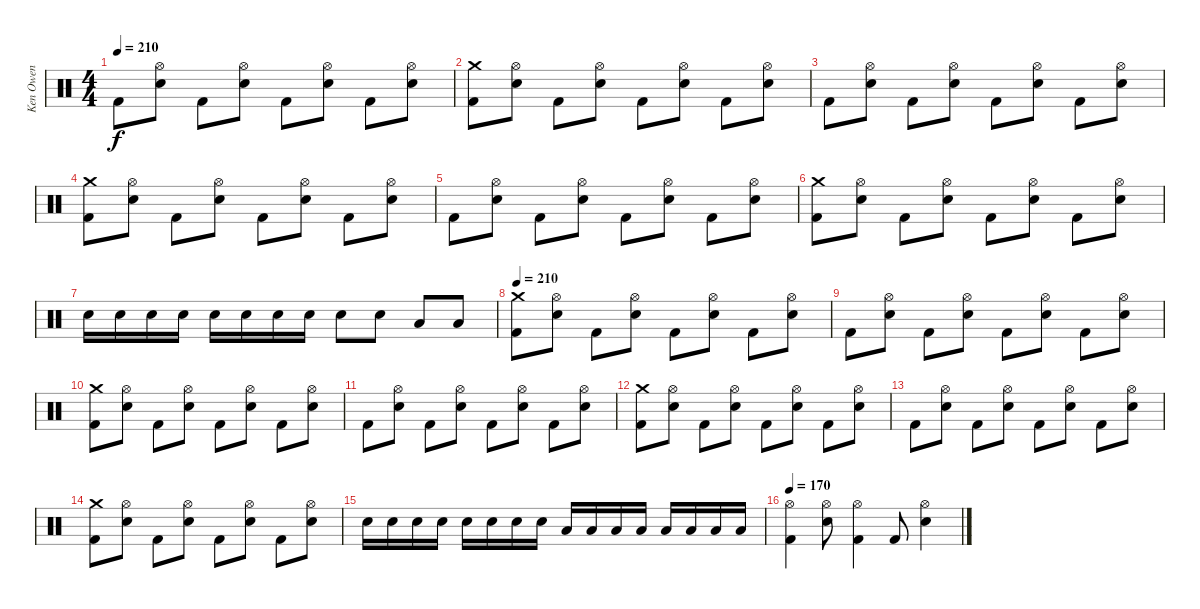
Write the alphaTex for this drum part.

\track ("Ken Owen" "Ken Owen") {instrument percussion}
\staff {score}
\articulation defaults
\ts (4 4)
\tempo 210
\clef neutral
\ks c "Kick (hit) 2".8{dy f}
("Hi-Hat (open)" "Electric Snare (hit)").8 "Kick (hit) 2".8 ("Hi-Hat (open)" "Electric Snare (hit)").8 "Kick (hit) 2".8 ("Hi-Hat (open)" "Electric Snare (hit)").8 "Kick (hit) 2".8 ("Hi-Hat (open)" "Electric Snare (hit)").8 |
("Crash medium (hit)" "Kick (hit) 2").8 ("Hi-Hat (open)" "Electric Snare (hit)").8 "Kick (hit) 2".8 ("Hi-Hat (open)" "Electric Snare (hit)").8 "Kick (hit) 2".8 ("Hi-Hat (open)" "Electric Snare (hit)").8 "Kick (hit) 2".8 ("Hi-Hat (open)" "Electric Snare (hit)").8 |
"Kick (hit) 2".8 ("Hi-Hat (open)" "Electric Snare (hit)").8 "Kick (hit) 2".8 ("Hi-Hat (open)" "Electric Snare (hit)").8 "Kick (hit) 2".8 ("Hi-Hat (open)" "Electric Snare (hit)").8 "Kick (hit) 2".8 ("Hi-Hat (open)" "Electric Snare (hit)").8 |
("Crash medium (hit)" "Kick (hit) 2").8 ("Hi-Hat (open)" "Electric Snare (hit)").8 "Kick (hit) 2".8 ("Hi-Hat (open)" "Electric Snare (hit)").8 "Kick (hit) 2".8 ("Hi-Hat (open)" "Electric Snare (hit)").8 "Kick (hit) 2".8 ("Hi-Hat (open)" "Electric Snare (hit)").8 |
"Kick (hit) 2".8 ("Hi-Hat (open)" "Electric Snare (hit)").8 "Kick (hit) 2".8 ("Hi-Hat (open)" "Electric Snare (hit)").8 "Kick (hit) 2".8 ("Hi-Hat (open)" "Electric Snare (hit)").8 "Kick (hit) 2".8 ("Hi-Hat (open)" "Electric Snare (hit)").8 |
("Crash medium (hit)" "Kick (hit) 2").8 ("Hi-Hat (open)" "Electric Snare (hit)").8 "Kick (hit) 2".8 ("Hi-Hat (open)" "Electric Snare (hit)").8 "Kick (hit) 2".8 ("Hi-Hat (open)" "Electric Snare (hit)").8 "Kick (hit) 2".8 ("Hi-Hat (open)" "Electric Snare (hit)").8 |
"Electric Snare (hit)".16 "Electric Snare (hit)".16 "Electric Snare (hit)".16 "Electric Snare (hit)".16 "Electric Snare (hit)".16 "Electric Snare (hit)".16 "Electric Snare (hit)".16 "Electric Snare (hit)".16 "Electric Snare (hit)".8 "Electric Snare (hit)".8 "Low Floor Tom (hit)".8 "Low Floor Tom (hit)".8 |
\tempo 210
("Crash medium (hit)" "Kick (hit) 2").8 ("Hi-Hat (open)" "Electric Snare (hit)").8 "Kick (hit) 2".8 ("Hi-Hat (open)" "Electric Snare (hit)").8 "Kick (hit) 2".8 ("Hi-Hat (open)" "Electric Snare (hit)").8 "Kick (hit) 2".8 ("Hi-Hat (open)" "Electric Snare (hit)").8 |
"Kick (hit) 2".8 ("Hi-Hat (open)" "Electric Snare (hit)").8 "Kick (hit) 2".8 ("Hi-Hat (open)" "Electric Snare (hit)").8 "Kick (hit) 2".8 ("Hi-Hat (open)" "Electric Snare (hit)").8 "Kick (hit) 2".8 ("Hi-Hat (open)" "Electric Snare (hit)").8 |
("Crash medium (hit)" "Kick (hit) 2").8 ("Hi-Hat (open)" "Electric Snare (hit)").8 "Kick (hit) 2".8 ("Hi-Hat (open)" "Electric Snare (hit)").8 "Kick (hit) 2".8 ("Hi-Hat (open)" "Electric Snare (hit)").8 "Kick (hit) 2".8 ("Hi-Hat (open)" "Electric Snare (hit)").8 |
"Kick (hit) 2".8 ("Hi-Hat (open)" "Electric Snare (hit)").8 "Kick (hit) 2".8 ("Hi-Hat (open)" "Electric Snare (hit)").8 "Kick (hit) 2".8 ("Hi-Hat (open)" "Electric Snare (hit)").8 "Kick (hit) 2".8 ("Hi-Hat (open)" "Electric Snare (hit)").8 |
("Crash medium (hit)" "Kick (hit) 2").8 ("Hi-Hat (open)" "Electric Snare (hit)").8 "Kick (hit) 2".8 ("Hi-Hat (open)" "Electric Snare (hit)").8 "Kick (hit) 2".8 ("Hi-Hat (open)" "Electric Snare (hit)").8 "Kick (hit) 2".8 ("Hi-Hat (open)" "Electric Snare (hit)").8 |
"Kick (hit) 2".8 ("Hi-Hat (open)" "Electric Snare (hit)").8 "Kick (hit) 2".8 ("Hi-Hat (open)" "Electric Snare (hit)").8 "Kick (hit) 2".8 ("Hi-Hat (open)" "Electric Snare (hit)").8 "Kick (hit) 2".8 ("Hi-Hat (open)" "Electric Snare (hit)").8 |
("Crash medium (hit)" "Kick (hit) 2").8 ("Hi-Hat (open)" "Electric Snare (hit)").8 "Kick (hit) 2".8 ("Hi-Hat (open)" "Electric Snare (hit)").8 "Kick (hit) 2".8 ("Hi-Hat (open)" "Electric Snare (hit)").8 "Kick (hit) 2".8 ("Hi-Hat (open)" "Electric Snare (hit)").8 |
"Electric Snare (hit)".16 "Electric Snare (hit)".16 "Electric Snare (hit)".16 "Electric Snare (hit)".16 "Electric Snare (hit)".16 "Electric Snare (hit)".16 "Electric Snare (hit)".16 "Electric Snare (hit)".16 "Low Floor Tom (hit)".16 "Low Floor Tom (hit)".16 "Low Floor Tom (hit)".16 "Low Floor Tom (hit)".16 "Low Floor Tom (hit)".16 "Low Floor Tom (hit)".16 "Low Floor Tom (hit)".16 "Low Floor Tom (hit)".16 |
\tempo 160
\tempo 170
("Hi-Hat (open)" "Kick (hit) 2").4 ("Hi-Hat (open)" "Electric Snare (hit)").8 ("Hi-Hat (open)" "Kick (hit) 2").4 "Kick (hit) 2".8 ("Hi-Hat (open)" "Electric Snare (hit)").4
